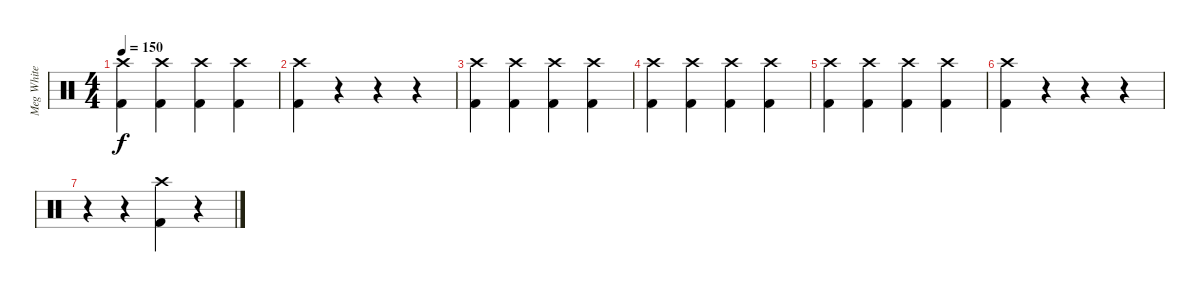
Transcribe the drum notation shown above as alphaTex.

\track ("Meg White - Drums" "Meg White ") {instrument percussion}
\staff {score}
\articulation defaults
\ts (4 4)
\tempo 150
\clef neutral
\ks c
("Crash high (hit)" "Kick (hit) 2").4{dy f} ("Crash high (hit)" "Kick (hit) 2").4 ("Crash high (hit)" "Kick (hit) 2").4 ("Crash high (hit)" "Kick (hit) 2").4 |
("Crash high (hit)" "Kick (hit) 2").4 r.4 r.4 r.4 |
("Crash high (hit)" "Kick (hit) 2").4 ("Crash high (hit)" "Kick (hit) 2").4 ("Crash high (hit)" "Kick (hit) 2").4 ("Crash high (hit)" "Kick (hit) 2").4 |
("Crash high (hit)" "Kick (hit) 2").4 ("Crash high (hit)" "Kick (hit) 2").4 ("Crash high (hit)" "Kick (hit) 2").4 ("Crash high (hit)" "Kick (hit) 2").4 |
("Crash high (hit)" "Kick (hit) 2").4 ("Crash high (hit)" "Kick (hit) 2").4 ("Crash high (hit)" "Kick (hit) 2").4 ("Crash high (hit)" "Kick (hit) 2").4 |
("Crash high (hit)" "Kick (hit) 2").4 r.4 r.4 r.4 |
r.4 r.4 ("Crash high (hit)" "Kick (hit) 2").4 r.4
